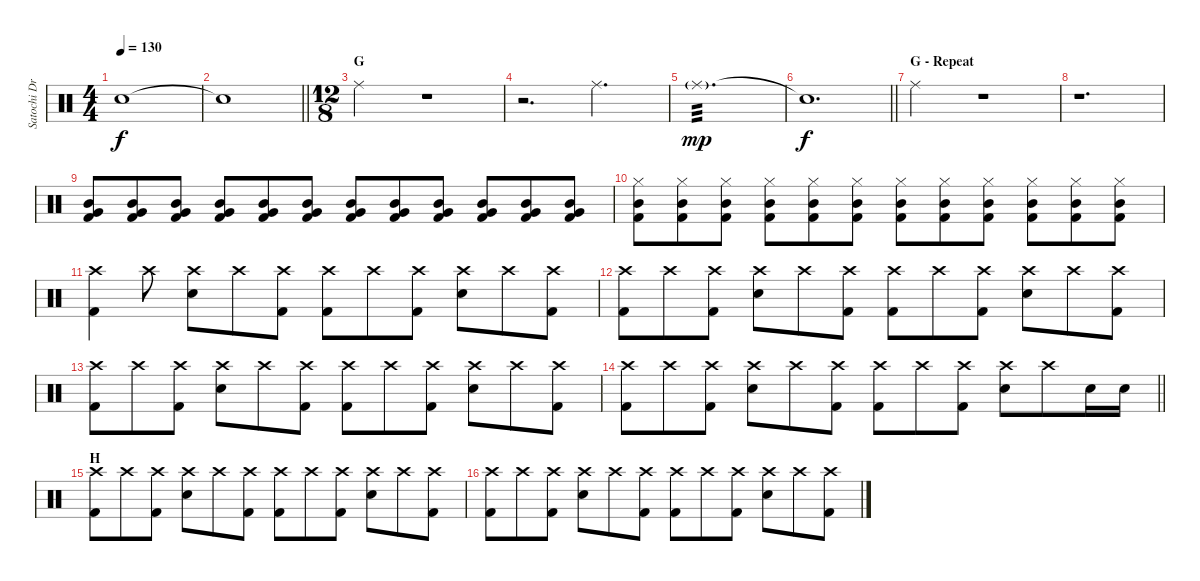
\track ("Satochi Drums" "Satochi Dr") {instrument percussion}
\staff {score}
\articulation defaults
\ts (4 4)
\tempo 130
\clef neutral
\ks c "Snare (hit)"{t}.1{dy f}
|
\barLineRight lightlight "Snare (hit)"{t}.1
|
\ts (12 8)
\section ("" "G")
"Ride (middle)".2 r.1 |
r.2{d} "Ride (middle)".2{d} |
"Ride (middle)"{g}.1{d tp 3 dy mp} |
\barLineRight lightlight "Snare (hit)"{t}.1{d dy f}
|
\section ("" "G - Repeat")
"Ride (middle)".2 r.1 |
r.1{d volume 9} |
("Mid Tom (hit)" "Very Low Tom (hit)" "Kick (hit) 2").8{volume 14} ("Mid Tom (hit)" "Very Low Tom (hit)" "Kick (hit) 2").8 ("Mid Tom (hit)" "Very Low Tom (hit)" "Kick (hit) 2").8 ("Mid Tom (hit)" "Very Low Tom (hit)" "Kick (hit) 2").8 ("Mid Tom (hit)" "Very Low Tom (hit)" "Kick (hit) 2").8 ("Mid Tom (hit)" "Very Low Tom (hit)" "Kick (hit) 2").8 ("Mid Tom (hit)" "Very Low Tom (hit)" "Kick (hit) 2").8 ("Mid Tom (hit)" "Very Low Tom (hit)" "Kick (hit) 2").8 ("Mid Tom (hit)" "Very Low Tom (hit)" "Kick (hit) 2").8 ("Mid Tom (hit)" "Very Low Tom (hit)" "Kick (hit) 2").8 ("Mid Tom (hit)" "Very Low Tom (hit)" "Kick (hit) 2").8 ("Mid Tom (hit)" "Very Low Tom (hit)" "Kick (hit) 2").8{volume 10} |
("Mid Tom (hit)" "Hi-Hat (closed)" "Kick (hit) 2").8{volume 14} ("Mid Tom (hit)" "Hi-Hat (closed)" "Kick (hit) 2").8 ("Mid Tom (hit)" "Hi-Hat (closed)" "Kick (hit) 2").8 ("Mid Tom (hit)" "Hi-Hat (closed)" "Kick (hit) 2").8 ("Mid Tom (hit)" "Hi-Hat (closed)" "Kick (hit) 2").8 ("Mid Tom (hit)" "Hi-Hat (closed)" "Kick (hit) 2").8 ("Mid Tom (hit)" "Hi-Hat (closed)" "Kick (hit) 2").8 ("Mid Tom (hit)" "Hi-Hat (closed)" "Kick (hit) 2").8 ("Mid Tom (hit)" "Hi-Hat (closed)" "Kick (hit) 2").8 ("Mid Tom (hit)" "Hi-Hat (closed)" "Kick (hit) 2").8 ("Mid Tom (hit)" "Hi-Hat (closed)" "Kick (hit) 2").8 ("Mid Tom (hit)" "Hi-Hat (closed)" "Kick (hit) 2").8 |
("Crash high (hit)" "Kick (hit) 2").4 "Crash high (hit)".8 ("Crash high (hit)" "Snare (hit) 2").8 "Crash high (hit)".8 ("Crash high (hit)" "Kick (hit) 2").8 ("Crash high (hit)" "Kick (hit) 2").8 "Crash high (hit)".8 ("Crash high (hit)" "Kick (hit) 2").8 ("Crash high (hit)" "Snare (hit) 2").8 "Crash high (hit)".8 ("Crash high (hit)" "Kick (hit) 2").8 |
("Crash high (hit)" "Kick (hit) 2").8 "Crash high (hit)".8 ("Crash high (hit)" "Kick (hit) 2").8 ("Crash high (hit)" "Snare (hit) 2").8 "Crash high (hit)".8 ("Crash high (hit)" "Kick (hit) 2").8 ("Crash high (hit)" "Kick (hit) 2").8 "Crash high (hit)".8 ("Crash high (hit)" "Kick (hit) 2").8 ("Crash high (hit)" "Snare (hit) 2").8 "Crash high (hit)".8 ("Crash high (hit)" "Kick (hit) 2").8 |
("Crash high (hit)" "Kick (hit) 2").8 "Crash high (hit)".8 ("Crash high (hit)" "Kick (hit) 2").8 ("Crash high (hit)" "Snare (hit) 2").8 "Crash high (hit)".8 ("Crash high (hit)" "Kick (hit) 2").8 ("Crash high (hit)" "Kick (hit) 2").8 "Crash high (hit)".8 ("Crash high (hit)" "Kick (hit) 2").8 ("Crash high (hit)" "Snare (hit) 2").8 "Crash high (hit)".8 ("Crash high (hit)" "Kick (hit) 2").8 |
\barLineRight lightlight
("Crash high (hit)" "Kick (hit) 2").8 "Crash high (hit)".8 ("Crash high (hit)" "Kick (hit) 2").8 ("Crash high (hit)" "Snare (hit) 2").8 "Crash high (hit)".8 ("Crash high (hit)" "Kick (hit) 2").8 ("Crash high (hit)" "Kick (hit) 2").8 "Crash high (hit)".8 ("Crash high (hit)" "Kick (hit) 2").8 ("Crash high (hit)" "Snare (hit) 2").8 "Crash high (hit)".8 "Snare (hit) 2".16 "Snare (hit) 2".16 |
\section ("" "H")
("Crash high (hit)" "Kick (hit) 2").8 "Crash high (hit)".8 ("Crash high (hit)" "Kick (hit) 2").8 ("Crash high (hit)" "Snare (hit) 2").8 "Crash high (hit)".8 ("Crash high (hit)" "Kick (hit) 2").8 ("Crash high (hit)" "Kick (hit) 2").8 "Crash high (hit)".8 ("Crash high (hit)" "Kick (hit) 2").8 ("Crash high (hit)" "Snare (hit) 2").8 "Crash high (hit)".8 ("Crash high (hit)" "Kick (hit) 2").8 |
("Crash high (hit)" "Kick (hit) 2").8 "Crash high (hit)".8 ("Crash high (hit)" "Kick (hit) 2").8 ("Crash high (hit)" "Snare (hit) 2").8 "Crash high (hit)".8 ("Crash high (hit)" "Kick (hit) 2").8 ("Crash high (hit)" "Kick (hit) 2").8 "Crash high (hit)".8 ("Crash high (hit)" "Kick (hit) 2").8 ("Crash high (hit)" "Snare (hit) 2").8 "Crash high (hit)".8 ("Crash high (hit)" "Kick (hit) 2").8
